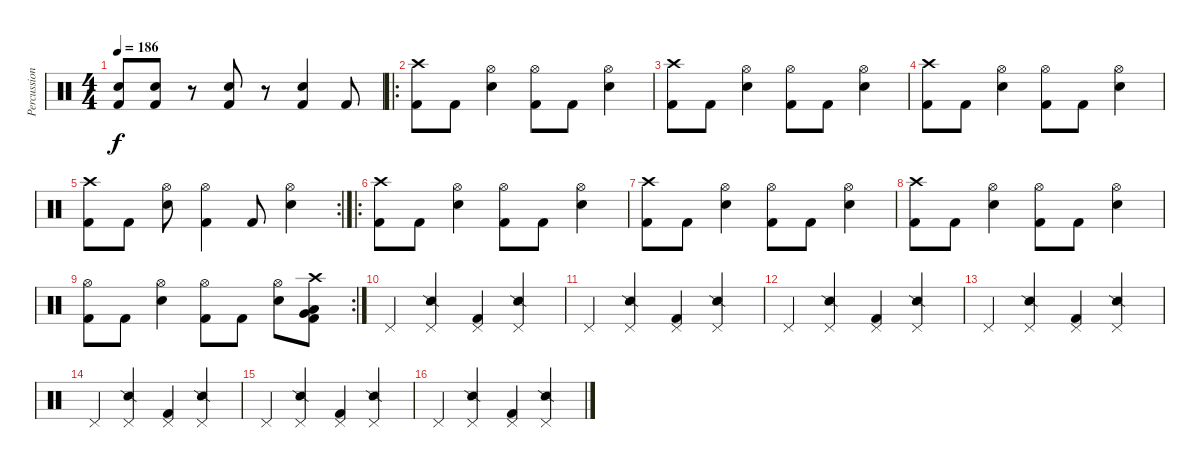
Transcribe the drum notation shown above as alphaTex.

\track ("Percussion" "Percussion") {instrument percussion}
\staff {score}
\articulation defaults
\ts (4 4)
\tempo 186
\clef neutral
\ks c
("Electric Snare (hit)" "Kick (hit) 2").8{dy f} ("Electric Snare (hit)" "Kick (hit) 2").8 r.8 ("Electric Snare (hit)" "Kick (hit) 2").8 r.8 ("Electric Snare (hit)" "Kick (hit) 2").4 "Kick (hit) 2".8 |
\ro
("Crash high (hit)" "Kick (hit) 2").8 "Kick (hit) 2".8 ("Hi-Hat (open)" "Electric Snare (hit)").4 ("Hi-Hat (open)" "Kick (hit) 2").8 "Kick (hit) 2".8 ("Hi-Hat (open)" "Electric Snare (hit)").4 |
("Crash high (hit)" "Kick (hit) 2").8 "Kick (hit) 2".8 ("Hi-Hat (open)" "Electric Snare (hit)").4 ("Hi-Hat (open)" "Kick (hit) 2").8 "Kick (hit) 2".8 ("Hi-Hat (open)" "Electric Snare (hit)").4 |
("Crash high (hit)" "Kick (hit) 2").8 "Kick (hit) 2".8 ("Hi-Hat (open)" "Electric Snare (hit)").4 ("Hi-Hat (open)" "Kick (hit) 2").8 "Kick (hit) 2".8 ("Hi-Hat (open)" "Electric Snare (hit)").4 |
\rc 2
("Crash high (hit)" "Kick (hit) 2").8 "Kick (hit) 2".8 ("Hi-Hat (open)" "Electric Snare (hit)").8 ("Hi-Hat (open)" "Kick (hit) 2").4 "Kick (hit) 2".8 ("Hi-Hat (open)" "Electric Snare (hit)").4 |
\ro
("Crash high (hit)" "Kick (hit) 2").8 "Kick (hit) 2".8 ("Hi-Hat (open)" "Electric Snare (hit)").4 ("Hi-Hat (open)" "Kick (hit) 2").8 "Kick (hit) 2".8 ("Hi-Hat (open)" "Electric Snare (hit)").4 |
("Crash high (hit)" "Kick (hit) 2").8 "Kick (hit) 2".8 ("Hi-Hat (open)" "Electric Snare (hit)").4 ("Hi-Hat (open)" "Kick (hit) 2").8 "Kick (hit) 2".8 ("Hi-Hat (open)" "Electric Snare (hit)").4 |
("Crash high (hit)" "Kick (hit) 2").8 "Kick (hit) 2".8 ("Hi-Hat (open)" "Electric Snare (hit)").4 ("Hi-Hat (open)" "Kick (hit) 2").8 "Kick (hit) 2".8 ("Hi-Hat (open)" "Electric Snare (hit)").4 |
\rc 2
("Hi-Hat (open)" "Kick (hit) 2").8 "Kick (hit) 2".8 ("Hi-Hat (open)" "Electric Snare (hit)").4 ("Hi-Hat (open)" "Kick (hit) 2").8 "Kick (hit) 2".8 ("Hi-Hat (open)" "Electric Snare (hit)").8 ("Crash high (hit)" "Very Low Tom (hit)" "Kick (hit) 2" "Low Tom (hit)").8 |
"Pedal Hi-Hat (hit)".4 ("Pedal Hi-Hat (hit)" "Snare (side stick) 2").4 ("Pedal Hi-Hat (hit)" "Kick (hit) 2").4 ("Pedal Hi-Hat (hit)" "Snare (side stick) 2").4 |
"Pedal Hi-Hat (hit)".4 ("Pedal Hi-Hat (hit)" "Snare (side stick) 2").4 ("Pedal Hi-Hat (hit)" "Kick (hit) 2").4 ("Pedal Hi-Hat (hit)" "Snare (side stick) 2").4 |
"Pedal Hi-Hat (hit)".4 ("Pedal Hi-Hat (hit)" "Snare (side stick) 2").4 ("Pedal Hi-Hat (hit)" "Kick (hit) 2").4 ("Pedal Hi-Hat (hit)" "Snare (side stick) 2").4 |
"Pedal Hi-Hat (hit)".4 ("Pedal Hi-Hat (hit)" "Snare (side stick) 2").4 ("Pedal Hi-Hat (hit)" "Kick (hit) 2").4 ("Pedal Hi-Hat (hit)" "Snare (side stick) 2").4 |
"Pedal Hi-Hat (hit)".4 ("Pedal Hi-Hat (hit)" "Snare (side stick) 2").4 ("Pedal Hi-Hat (hit)" "Kick (hit) 2").4 ("Pedal Hi-Hat (hit)" "Snare (side stick) 2").4 |
"Pedal Hi-Hat (hit)".4 ("Pedal Hi-Hat (hit)" "Snare (side stick) 2").4 ("Pedal Hi-Hat (hit)" "Kick (hit) 2").4 ("Pedal Hi-Hat (hit)" "Snare (side stick) 2").4 |
"Pedal Hi-Hat (hit)".4 ("Pedal Hi-Hat (hit)" "Snare (side stick) 2").4 ("Pedal Hi-Hat (hit)" "Kick (hit) 2").4 ("Pedal Hi-Hat (hit)" "Snare (side stick) 2").4
